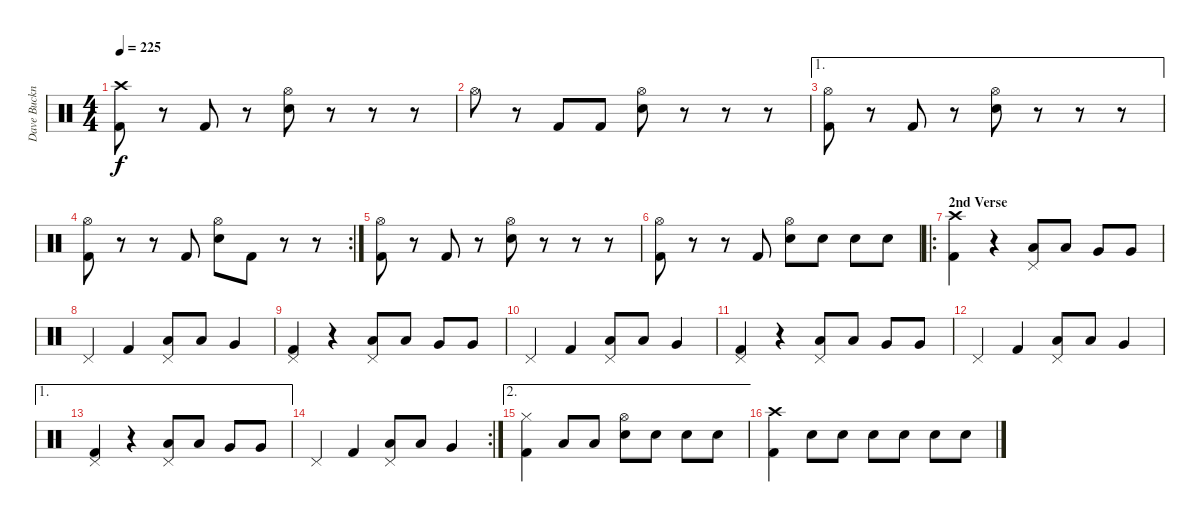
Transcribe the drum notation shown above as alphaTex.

\track ("Dave Buckner" "Dave Buckn") {instrument percussion}
\staff {score}
\articulation defaults
\ts (4 4)
\tempo 225
\clef neutral
\ks c
("Crash high (hit)" "Kick (hit) 2").8{dy f} r.8 "Kick (hit) 2".8 r.8 ("Hi-Hat (open)" "Electric Snare (hit)").8 r.8 r.8 r.8 |
"Hi-Hat (open)".8 r.8 "Kick (hit) 2".8 "Kick (hit) 2".8 ("Hi-Hat (open)" "Electric Snare (hit)").8 r.8 r.8 r.8 |
\ae 1
("Hi-Hat (open)" "Kick (hit) 2").8 r.8 "Kick (hit) 2".8 r.8 ("Hi-Hat (open)" "Electric Snare (hit)").8 r.8 r.8 r.8 |
\rc 2
("Hi-Hat (open)" "Kick (hit) 2").8 r.8 r.8 "Kick (hit) 2".8 ("Hi-Hat (open)" "Electric Snare (hit)").8 "Kick (hit) 2".8 r.8 r.8 |
("Hi-Hat (open)" "Kick (hit) 2").8 r.8 "Kick (hit) 2".8 r.8 ("Hi-Hat (open)" "Electric Snare (hit)").8 r.8 r.8 r.8 |
("Hi-Hat (open)" "Kick (hit) 2").8 r.8 r.8 "Kick (hit) 2".8 ("Hi-Hat (open)" "Electric Snare (hit)").8 "Electric Snare (hit)".8 "Electric Snare (hit)".8 "Electric Snare (hit)".8 |
\ro
\section ("" "2nd Verse")
("Crash high (hit)" "Kick (hit) 2").4 r.4 ("Pedal Hi-Hat (hit)" "Low Tom (hit)").8 "Low Tom (hit)".8 "Very Low Tom (hit)".8 "Very Low Tom (hit)".8 |
"Pedal Hi-Hat (hit)".4 "Kick (hit) 2".4 ("Pedal Hi-Hat (hit)" "Low Tom (hit)").8 "Low Tom (hit)".8 "Very Low Tom (hit)".4 |
("Pedal Hi-Hat (hit)" "Kick (hit) 2").4 r.4 ("Pedal Hi-Hat (hit)" "Low Tom (hit)").8 "Low Tom (hit)".8 "Very Low Tom (hit)".8 "Very Low Tom (hit)".8 |
"Pedal Hi-Hat (hit)".4 "Kick (hit) 2".4 ("Pedal Hi-Hat (hit)" "Low Tom (hit)").8 "Low Tom (hit)".8 "Very Low Tom (hit)".4 |
("Pedal Hi-Hat (hit)" "Kick (hit) 2").4 r.4 ("Pedal Hi-Hat (hit)" "Low Tom (hit)").8 "Low Tom (hit)".8 "Very Low Tom (hit)".8 "Very Low Tom (hit)".8 |
"Pedal Hi-Hat (hit)".4 "Kick (hit) 2".4 ("Pedal Hi-Hat (hit)" "Low Tom (hit)").8 "Low Tom (hit)".8 "Very Low Tom (hit)".4 |
\ae 1
("Pedal Hi-Hat (hit)" "Kick (hit) 2").4 r.4 ("Pedal Hi-Hat (hit)" "Low Tom (hit)").8 "Low Tom (hit)".8 "Very Low Tom (hit)".8 "Very Low Tom (hit)".8 |
\rc 2 "Pedal Hi-Hat (hit)".4 "Kick (hit) 2".4
("Pedal Hi-Hat (hit)" "Low Tom (hit)").8 "Low Tom (hit)".8 "Very Low Tom (hit)".4 |
\ae 2
("Hi-Hat (closed)" "Kick (hit) 2").4 "Low Tom (hit)".8 "Low Tom (hit)".8 ("Hi-Hat (open)" "Electric Snare (hit)").8 "Electric Snare (hit)".8 "Electric Snare (hit)".8 "Electric Snare (hit)".8 |
("Crash high (hit)" "Kick (hit) 2").4 "Electric Snare (hit)".8 "Electric Snare (hit)".8 "Electric Snare (hit)".8 "Electric Snare (hit)".8 "Electric Snare (hit)".8 "Electric Snare (hit)".8
